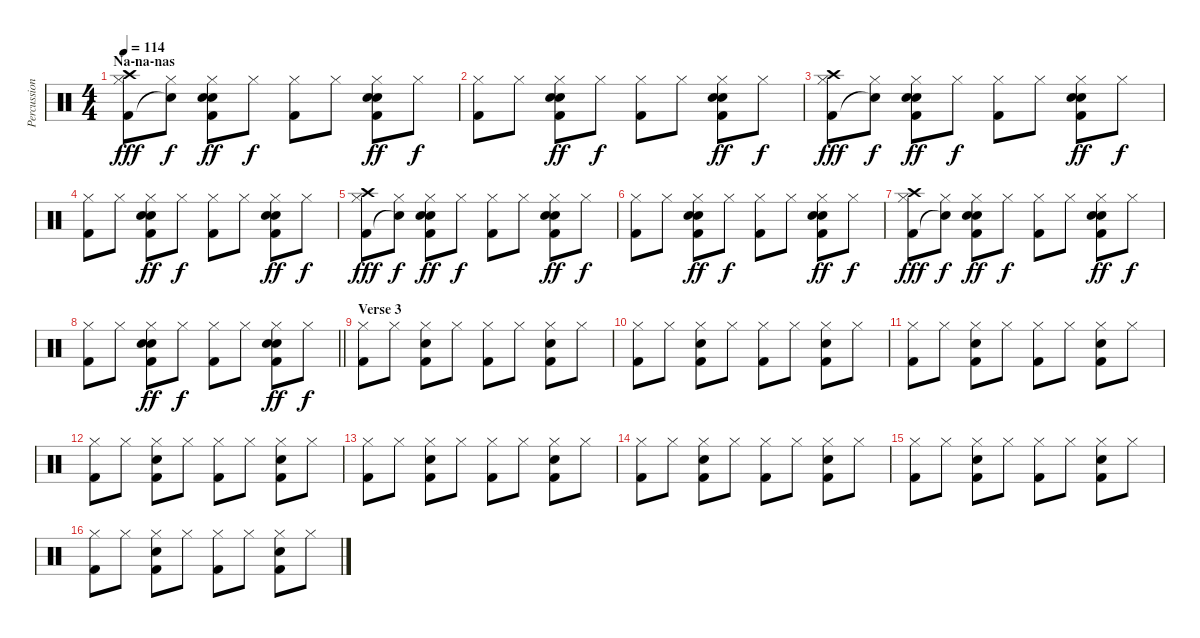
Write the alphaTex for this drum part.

\track ("Percussion" "Percussion") {instrument percussion}
\staff {score}
\articulation defaults
\ts (4 4)
\section ("" "Na-na-nas")
\tempo 114
\clef neutral
\ks c
("Hi-Hat (closed)" "Kick (hit) 2" "Crash high (hit)").8{dy fff} ("Hi-Hat (closed)" "Snare (hit)"{t}).8{dy f} ("Hand Clap (hit)" "Hi-Hat (closed)" "Snare (hit) 2" "Kick (hit) 2").8{dy ff} "Hi-Hat (closed)".8{dy f} ("Hi-Hat (closed)" "Kick (hit) 2").8 "Hi-Hat (closed)".8 ("Hand Clap (hit)" "Hi-Hat (closed)" "Snare (hit) 2" "Kick (hit) 2").8{dy ff} "Hi-Hat (closed)".8{dy f} |
("Hi-Hat (closed)" "Kick (hit) 2").8 "Hi-Hat (closed)".8 ("Hand Clap (hit)" "Hi-Hat (closed)" "Snare (hit) 2" "Kick (hit) 2").8{dy ff} "Hi-Hat (closed)".8{dy f} ("Hi-Hat (closed)" "Kick (hit) 2").8 "Hi-Hat (closed)".8 ("Hand Clap (hit)" "Hi-Hat (closed)" "Snare (hit) 2" "Kick (hit) 2").8{dy ff} "Hi-Hat (closed)".8{dy f} |
("Hi-Hat (closed)" "Kick (hit) 2" "Crash high (hit)").8{dy fff} ("Hi-Hat (closed)" "Snare (hit)"{t}).8{dy f} ("Hand Clap (hit)" "Hi-Hat (closed)" "Snare (hit) 2" "Kick (hit) 2").8{dy ff} "Hi-Hat (closed)".8{dy f} ("Hi-Hat (closed)" "Kick (hit) 2").8 "Hi-Hat (closed)".8 ("Hand Clap (hit)" "Hi-Hat (closed)" "Snare (hit) 2" "Kick (hit) 2").8{dy ff} "Hi-Hat (closed)".8{dy f} |
("Hi-Hat (closed)" "Kick (hit) 2").8 "Hi-Hat (closed)".8 ("Hand Clap (hit)" "Hi-Hat (closed)" "Snare (hit) 2" "Kick (hit) 2").8{dy ff} "Hi-Hat (closed)".8{dy f} ("Hi-Hat (closed)" "Kick (hit) 2").8 "Hi-Hat (closed)".8 ("Hand Clap (hit)" "Hi-Hat (closed)" "Snare (hit) 2" "Kick (hit) 2").8{dy ff} "Hi-Hat (closed)".8{dy f} |
("Hi-Hat (closed)" "Kick (hit) 2" "Crash high (hit)").8{dy fff} ("Hi-Hat (closed)" "Snare (hit)"{t}).8{dy f} ("Hand Clap (hit)" "Hi-Hat (closed)" "Snare (hit) 2" "Kick (hit) 2").8{dy ff} "Hi-Hat (closed)".8{dy f} ("Hi-Hat (closed)" "Kick (hit) 2").8 "Hi-Hat (closed)".8 ("Hand Clap (hit)" "Hi-Hat (closed)" "Snare (hit) 2" "Kick (hit) 2").8{dy ff} "Hi-Hat (closed)".8{dy f} |
("Hi-Hat (closed)" "Kick (hit) 2").8 "Hi-Hat (closed)".8 ("Hand Clap (hit)" "Hi-Hat (closed)" "Snare (hit) 2" "Kick (hit) 2").8{dy ff} "Hi-Hat (closed)".8{dy f} ("Hi-Hat (closed)" "Kick (hit) 2").8 "Hi-Hat (closed)".8 ("Hand Clap (hit)" "Hi-Hat (closed)" "Snare (hit) 2" "Kick (hit) 2").8{dy ff} "Hi-Hat (closed)".8{dy f} |
("Hi-Hat (closed)" "Kick (hit) 2" "Crash high (hit)").8{dy fff} ("Hi-Hat (closed)" "Snare (hit)"{t}).8{dy f} ("Hand Clap (hit)" "Hi-Hat (closed)" "Snare (hit) 2" "Kick (hit) 2").8{dy ff} "Hi-Hat (closed)".8{dy f} ("Hi-Hat (closed)" "Kick (hit) 2").8 "Hi-Hat (closed)".8 ("Hand Clap (hit)" "Hi-Hat (closed)" "Snare (hit) 2" "Kick (hit) 2").8{dy ff} "Hi-Hat (closed)".8{dy f} |
\barLineRight lightlight
("Hi-Hat (closed)" "Kick (hit) 2").8 "Hi-Hat (closed)".8 ("Hand Clap (hit)" "Hi-Hat (closed)" "Snare (hit) 2" "Kick (hit) 2").8{dy ff} "Hi-Hat (closed)".8{dy f} ("Hi-Hat (closed)" "Kick (hit) 2").8 "Hi-Hat (closed)".8 ("Hand Clap (hit)" "Hi-Hat (closed)" "Snare (hit) 2" "Kick (hit) 2").8{dy ff} "Hi-Hat (closed)".8{dy f} |
\section ("" "Verse 3")
("Hi-Hat (closed)" "Kick (hit) 2").8 "Hi-Hat (closed)".8 ("Hi-Hat (closed)" "Snare (hit) 2" "Kick (hit) 2").8 "Hi-Hat (closed)".8 ("Hi-Hat (closed)" "Kick (hit) 2").8 "Hi-Hat (closed)".8 ("Hi-Hat (closed)" "Snare (hit) 2" "Kick (hit) 2").8 "Hi-Hat (closed)".8 |
("Hi-Hat (closed)" "Kick (hit) 2").8 "Hi-Hat (closed)".8 ("Hi-Hat (closed)" "Snare (hit) 2" "Kick (hit) 2").8 "Hi-Hat (closed)".8 ("Hi-Hat (closed)" "Kick (hit) 2").8 "Hi-Hat (closed)".8 ("Hi-Hat (closed)" "Snare (hit) 2" "Kick (hit) 2").8 "Hi-Hat (closed)".8 |
("Hi-Hat (closed)" "Kick (hit) 2").8 "Hi-Hat (closed)".8 ("Hi-Hat (closed)" "Snare (hit) 2" "Kick (hit) 2").8 "Hi-Hat (closed)".8 ("Hi-Hat (closed)" "Kick (hit) 2").8 "Hi-Hat (closed)".8 ("Hi-Hat (closed)" "Snare (hit) 2" "Kick (hit) 2").8 "Hi-Hat (closed)".8 |
("Hi-Hat (closed)" "Kick (hit) 2").8 "Hi-Hat (closed)".8 ("Hi-Hat (closed)" "Snare (hit) 2" "Kick (hit) 2").8 "Hi-Hat (closed)".8 ("Hi-Hat (closed)" "Kick (hit) 2").8 "Hi-Hat (closed)".8 ("Hi-Hat (closed)" "Snare (hit) 2" "Kick (hit) 2").8 "Hi-Hat (closed)".8 |
("Hi-Hat (closed)" "Kick (hit) 2").8 "Hi-Hat (closed)".8 ("Hi-Hat (closed)" "Snare (hit) 2" "Kick (hit) 2").8 "Hi-Hat (closed)".8 ("Hi-Hat (closed)" "Kick (hit) 2").8 "Hi-Hat (closed)".8 ("Hi-Hat (closed)" "Snare (hit) 2" "Kick (hit) 2").8 "Hi-Hat (closed)".8 |
("Hi-Hat (closed)" "Kick (hit) 2").8 "Hi-Hat (closed)".8 ("Hi-Hat (closed)" "Snare (hit) 2" "Kick (hit) 2").8 "Hi-Hat (closed)".8 ("Hi-Hat (closed)" "Kick (hit) 2").8 "Hi-Hat (closed)".8 ("Hi-Hat (closed)" "Snare (hit) 2" "Kick (hit) 2").8 "Hi-Hat (closed)".8 |
("Hi-Hat (closed)" "Kick (hit) 2").8 "Hi-Hat (closed)".8 ("Hi-Hat (closed)" "Snare (hit) 2" "Kick (hit) 2").8 "Hi-Hat (closed)".8 ("Hi-Hat (closed)" "Kick (hit) 2").8 "Hi-Hat (closed)".8 ("Hi-Hat (closed)" "Snare (hit) 2" "Kick (hit) 2").8 "Hi-Hat (closed)".8 |
("Hi-Hat (closed)" "Kick (hit) 2").8 "Hi-Hat (closed)".8 ("Hi-Hat (closed)" "Snare (hit) 2" "Kick (hit) 2").8 "Hi-Hat (closed)".8 ("Hi-Hat (closed)" "Kick (hit) 2").8 "Hi-Hat (closed)".8 ("Hi-Hat (closed)" "Snare (hit) 2" "Kick (hit) 2").8 "Hi-Hat (closed)".8
